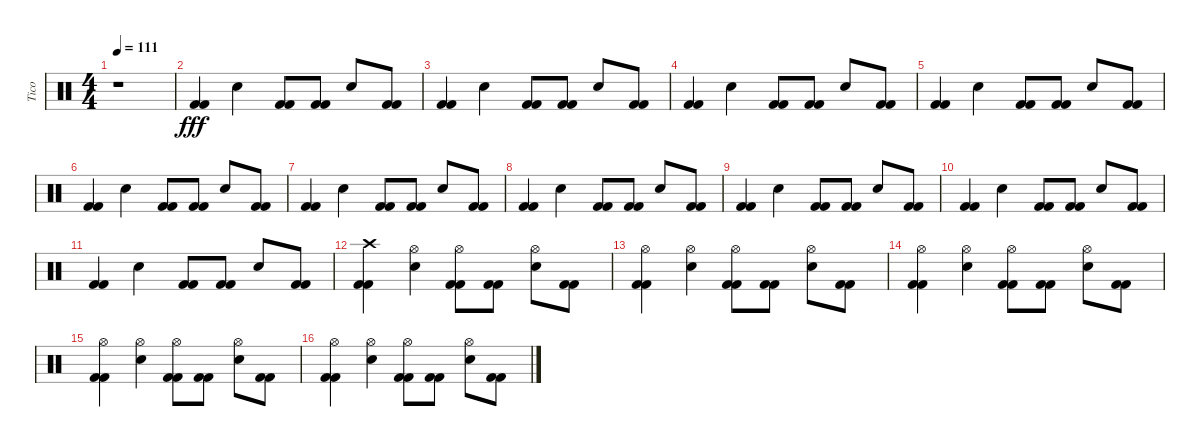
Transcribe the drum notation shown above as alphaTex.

\track ("Tico" "Tico") {instrument percussion}
\staff {score}
\articulation defaults
\ts (4 4)
\tempo 111
\clef neutral
\ks c
r.1{dy fff} |
("Kick (hit) 2" "Kick (hit) 2").4 "Snare (hit) 2".4 ("Kick (hit) 2" "Kick (hit) 2").8 ("Kick (hit) 2" "Kick (hit) 2").8 "Snare (hit) 2".8 ("Kick (hit) 2" "Kick (hit) 2").8 |
("Kick (hit) 2" "Kick (hit) 2").4 "Snare (hit) 2".4 ("Kick (hit) 2" "Kick (hit) 2").8 ("Kick (hit) 2" "Kick (hit) 2").8 "Snare (hit) 2".8 ("Kick (hit) 2" "Kick (hit) 2").8 |
("Kick (hit) 2" "Kick (hit) 2").4 "Snare (hit) 2".4 ("Kick (hit) 2" "Kick (hit) 2").8 ("Kick (hit) 2" "Kick (hit) 2").8 "Snare (hit) 2".8 ("Kick (hit) 2" "Kick (hit) 2").8 |
("Kick (hit) 2" "Kick (hit) 2").4 "Snare (hit) 2".4 ("Kick (hit) 2" "Kick (hit) 2").8 ("Kick (hit) 2" "Kick (hit) 2").8 "Snare (hit) 2".8 ("Kick (hit) 2" "Kick (hit) 2").8 |
("Kick (hit) 2" "Kick (hit) 2").4 "Snare (hit) 2".4 ("Kick (hit) 2" "Kick (hit) 2").8 ("Kick (hit) 2" "Kick (hit) 2").8 "Snare (hit) 2".8 ("Kick (hit) 2" "Kick (hit) 2").8 |
("Kick (hit) 2" "Kick (hit) 2").4 "Snare (hit) 2".4 ("Kick (hit) 2" "Kick (hit) 2").8 ("Kick (hit) 2" "Kick (hit) 2").8 "Snare (hit) 2".8 ("Kick (hit) 2" "Kick (hit) 2").8 |
("Kick (hit) 2" "Kick (hit) 2").4 "Snare (hit) 2".4 ("Kick (hit) 2" "Kick (hit) 2").8 ("Kick (hit) 2" "Kick (hit) 2").8 "Snare (hit) 2".8 ("Kick (hit) 2" "Kick (hit) 2").8 |
("Kick (hit) 2" "Kick (hit) 2").4 "Snare (hit) 2".4 ("Kick (hit) 2" "Kick (hit) 2").8 ("Kick (hit) 2" "Kick (hit) 2").8 "Snare (hit) 2".8 ("Kick (hit) 2" "Kick (hit) 2").8 |
("Kick (hit) 2" "Kick (hit) 2").4 "Snare (hit) 2".4 ("Kick (hit) 2" "Kick (hit) 2").8 ("Kick (hit) 2" "Kick (hit) 2").8 "Snare (hit) 2".8 ("Kick (hit) 2" "Kick (hit) 2").8 |
("Kick (hit) 2" "Kick (hit) 2").4 "Snare (hit) 2".4 ("Kick (hit) 2" "Kick (hit) 2").8 ("Kick (hit) 2" "Kick (hit) 2").8 "Snare (hit) 2".8 ("Kick (hit) 2" "Kick (hit) 2").8 |
("Crash high (hit)" "Kick (hit) 2" "Kick (hit) 2").4 ("Hi-Hat (open)" "Snare (hit) 2").4 ("Hi-Hat (open)" "Kick (hit) 2" "Kick (hit) 2").8 ("Kick (hit) 2" "Kick (hit) 2").8 ("Hi-Hat (open)" "Snare (hit) 2").8 ("Kick (hit) 2" "Kick (hit) 2").8 |
("Hi-Hat (open)" "Kick (hit) 2" "Kick (hit) 2").4 ("Hi-Hat (open)" "Snare (hit) 2").4 ("Hi-Hat (open)" "Kick (hit) 2" "Kick (hit) 2").8 ("Kick (hit) 2" "Kick (hit) 2").8 ("Hi-Hat (open)" "Snare (hit) 2").8 ("Kick (hit) 2" "Kick (hit) 2").8 |
("Hi-Hat (open)" "Kick (hit) 2" "Kick (hit) 2").4 ("Hi-Hat (open)" "Snare (hit) 2").4 ("Hi-Hat (open)" "Kick (hit) 2" "Kick (hit) 2").8 ("Kick (hit) 2" "Kick (hit) 2").8 ("Hi-Hat (open)" "Snare (hit) 2").8 ("Kick (hit) 2" "Kick (hit) 2").8 |
("Hi-Hat (open)" "Kick (hit) 2" "Kick (hit) 2").4 ("Hi-Hat (open)" "Snare (hit) 2").4 ("Hi-Hat (open)" "Kick (hit) 2" "Kick (hit) 2").8 ("Kick (hit) 2" "Kick (hit) 2").8 ("Hi-Hat (open)" "Snare (hit) 2").8 ("Kick (hit) 2" "Kick (hit) 2").8 |
("Hi-Hat (open)" "Kick (hit) 2" "Kick (hit) 2").4 ("Hi-Hat (open)" "Snare (hit) 2").4 ("Hi-Hat (open)" "Kick (hit) 2" "Kick (hit) 2").8 ("Kick (hit) 2" "Kick (hit) 2").8 ("Hi-Hat (open)" "Snare (hit) 2").8 ("Kick (hit) 2" "Kick (hit) 2").8
